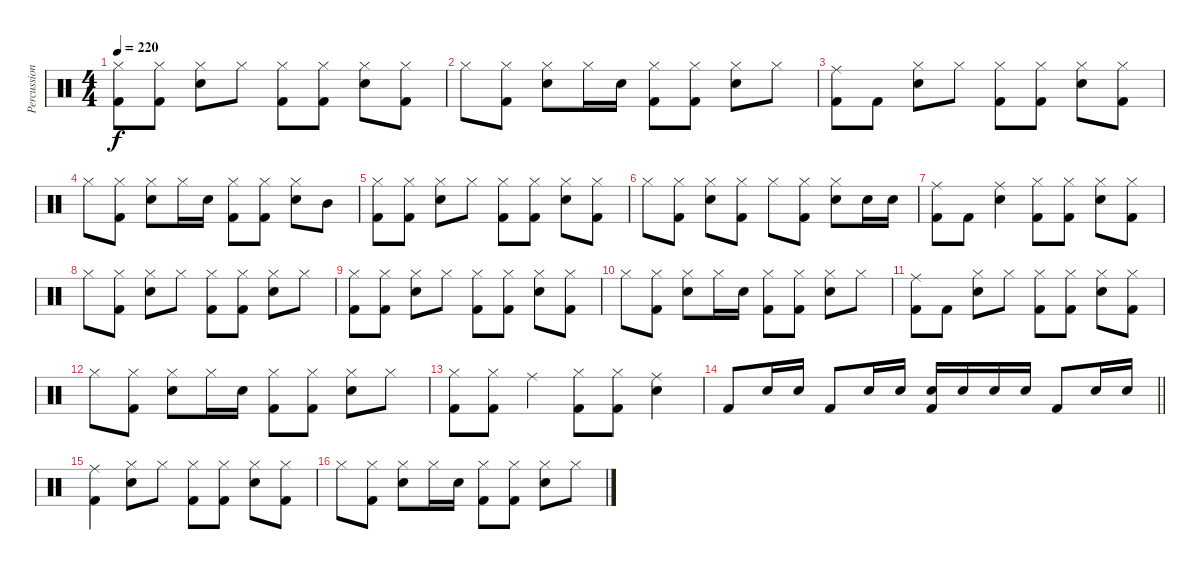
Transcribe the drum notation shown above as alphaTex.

\track ("Percussion" "Percussion") {instrument percussion}
\staff {score}
\articulation defaults
\ts (4 4)
\tempo 220
\clef neutral
\ks c
("Hi-Hat (closed)" "Kick (hit) 2").8{dy f} ("Hi-Hat (closed)" "Kick (hit) 2").8 ("Hi-Hat (closed)" "Electric Snare (hit)").8 "Hi-Hat (closed)".8 ("Hi-Hat (closed)" "Kick (hit) 2").8 ("Hi-Hat (closed)" "Kick (hit) 2").8 ("Hi-Hat (closed)" "Electric Snare (hit)").8 ("Hi-Hat (closed)" "Kick (hit) 2").8 |
"Hi-Hat (closed)".8 ("Hi-Hat (closed)" "Kick (hit) 2").8 ("Hi-Hat (closed)" "Electric Snare (hit)").8 "Hi-Hat (closed)".16 "Electric Snare (hit)".16 ("Hi-Hat (closed)" "Kick (hit) 2").8 ("Hi-Hat (closed)" "Kick (hit) 2").8 ("Hi-Hat (closed)" "Electric Snare (hit)").8 "Hi-Hat (closed)".8 |
("Ride (middle)" "Kick (hit) 2").8 "Kick (hit) 2".8 ("Hi-Hat (closed)" "Electric Snare (hit)").8 "Hi-Hat (closed)".8 ("Hi-Hat (closed)" "Kick (hit) 2").8 ("Hi-Hat (closed)" "Kick (hit) 2").8 ("Hi-Hat (closed)" "Electric Snare (hit)").8 ("Hi-Hat (closed)" "Kick (hit) 2").8 |
"Hi-Hat (closed)".8 ("Hi-Hat (closed)" "Kick (hit) 2").8 ("Hi-Hat (closed)" "Electric Snare (hit)").8 "Hi-Hat (closed)".16 "Electric Snare (hit)".16 ("Hi-Hat (closed)" "Kick (hit) 2").8 ("Hi-Hat (closed)" "Kick (hit) 2").8 ("Hi-Hat (closed)" "Electric Snare (hit)").8 "Mid Tom (hit)".8 |
("Hi-Hat (closed)" "Kick (hit) 2").8 ("Hi-Hat (closed)" "Kick (hit) 2").8 ("Hi-Hat (closed)" "Electric Snare (hit)").8 "Hi-Hat (closed)".8 ("Hi-Hat (closed)" "Kick (hit) 2").8 ("Hi-Hat (closed)" "Kick (hit) 2").8 ("Hi-Hat (closed)" "Electric Snare (hit)").8 ("Hi-Hat (closed)" "Kick (hit) 2").8 |
"Hi-Hat (closed)".8 ("Hi-Hat (closed)" "Kick (hit) 2").8 ("Hi-Hat (closed)" "Electric Snare (hit)").8 ("Hi-Hat (closed)" "Kick (hit) 2").8 "Hi-Hat (closed)".8 ("Hi-Hat (closed)" "Kick (hit) 2").8 ("Hi-Hat (closed)" "Electric Snare (hit)").8 "Electric Snare (hit)".16 "Electric Snare (hit)".16 |
("Ride (middle)" "Kick (hit) 2").8 "Kick (hit) 2".8 ("Ride (middle)" "Electric Snare (hit)").4 ("Hi-Hat (closed)" "Kick (hit) 2").8 ("Hi-Hat (closed)" "Kick (hit) 2").8 ("Hi-Hat (closed)" "Electric Snare (hit)").8 ("Hi-Hat (closed)" "Kick (hit) 2").8 |
"Hi-Hat (closed)".8 ("Hi-Hat (closed)" "Kick (hit) 2").8 ("Hi-Hat (closed)" "Electric Snare (hit)").8 "Hi-Hat (closed)".8 ("Hi-Hat (closed)" "Kick (hit) 2").8 ("Hi-Hat (closed)" "Kick (hit) 2").8 ("Hi-Hat (closed)" "Electric Snare (hit)").8 "Hi-Hat (closed)".8 |
("Hi-Hat (closed)" "Kick (hit) 2").8 ("Hi-Hat (closed)" "Kick (hit) 2").8 ("Hi-Hat (closed)" "Electric Snare (hit)").8 "Hi-Hat (closed)".8 ("Hi-Hat (closed)" "Kick (hit) 2").8 ("Hi-Hat (closed)" "Kick (hit) 2").8 ("Hi-Hat (closed)" "Electric Snare (hit)").8 ("Hi-Hat (closed)" "Kick (hit) 2").8 |
"Hi-Hat (closed)".8 ("Hi-Hat (closed)" "Kick (hit) 2").8 ("Hi-Hat (closed)" "Electric Snare (hit)").8 "Hi-Hat (closed)".16 "Electric Snare (hit)".16 ("Hi-Hat (closed)" "Kick (hit) 2").8 ("Hi-Hat (closed)" "Kick (hit) 2").8 ("Hi-Hat (closed)" "Electric Snare (hit)").8 "Hi-Hat (closed)".8 |
("Ride (middle)" "Kick (hit) 2").8 "Kick (hit) 2".8 ("Hi-Hat (closed)" "Electric Snare (hit)").8 "Hi-Hat (closed)".8 ("Hi-Hat (closed)" "Kick (hit) 2").8 ("Hi-Hat (closed)" "Kick (hit) 2").8 ("Hi-Hat (closed)" "Electric Snare (hit)").8 ("Hi-Hat (closed)" "Kick (hit) 2").8 |
"Hi-Hat (closed)".8 ("Hi-Hat (closed)" "Kick (hit) 2").8 ("Hi-Hat (closed)" "Electric Snare (hit)").8 "Hi-Hat (closed)".16 "Electric Snare (hit)".16 ("Hi-Hat (closed)" "Kick (hit) 2").8 ("Hi-Hat (closed)" "Kick (hit) 2").8 ("Hi-Hat (closed)" "Electric Snare (hit)").8 "Hi-Hat (closed)".8 |
("Hi-Hat (closed)" "Kick (hit) 2").8 ("Hi-Hat (closed)" "Kick (hit) 2").8 "Ride (middle)".4 ("Hi-Hat (closed)" "Kick (hit) 2").8 ("Hi-Hat (closed)" "Kick (hit) 2").8 ("Ride (middle)" "Electric Snare (hit)").4 |
\barLineRight lightlight "Kick (hit) 2".8 "Electric Snare (hit)".16 "Electric Snare (hit)".16 "Kick (hit) 2".8 "Electric Snare (hit)".16 "Electric Snare (hit)".16
("Electric Snare (hit)" "Kick (hit) 2").16 "Electric Snare (hit)".16 "Electric Snare (hit)".16 "Electric Snare (hit)".16 "Kick (hit) 2".8 "Electric Snare (hit)".16 "Electric Snare (hit)".16 |
("Ride (middle)" "Kick (hit) 2").4 ("Hi-Hat (closed)" "Electric Snare (hit)").8 "Hi-Hat (closed)".8 ("Hi-Hat (closed)" "Kick (hit) 2").8 ("Hi-Hat (closed)" "Kick (hit) 2").8 ("Hi-Hat (closed)" "Electric Snare (hit)").8 ("Hi-Hat (closed)" "Kick (hit) 2").8 |
"Hi-Hat (closed)".8 ("Hi-Hat (closed)" "Kick (hit) 2").8 ("Hi-Hat (closed)" "Electric Snare (hit)").8 "Hi-Hat (closed)".16 "Electric Snare (hit)".16 ("Hi-Hat (closed)" "Kick (hit) 2").8 ("Hi-Hat (closed)" "Kick (hit) 2").8 ("Hi-Hat (closed)" "Electric Snare (hit)").8 "Hi-Hat (closed)".8
